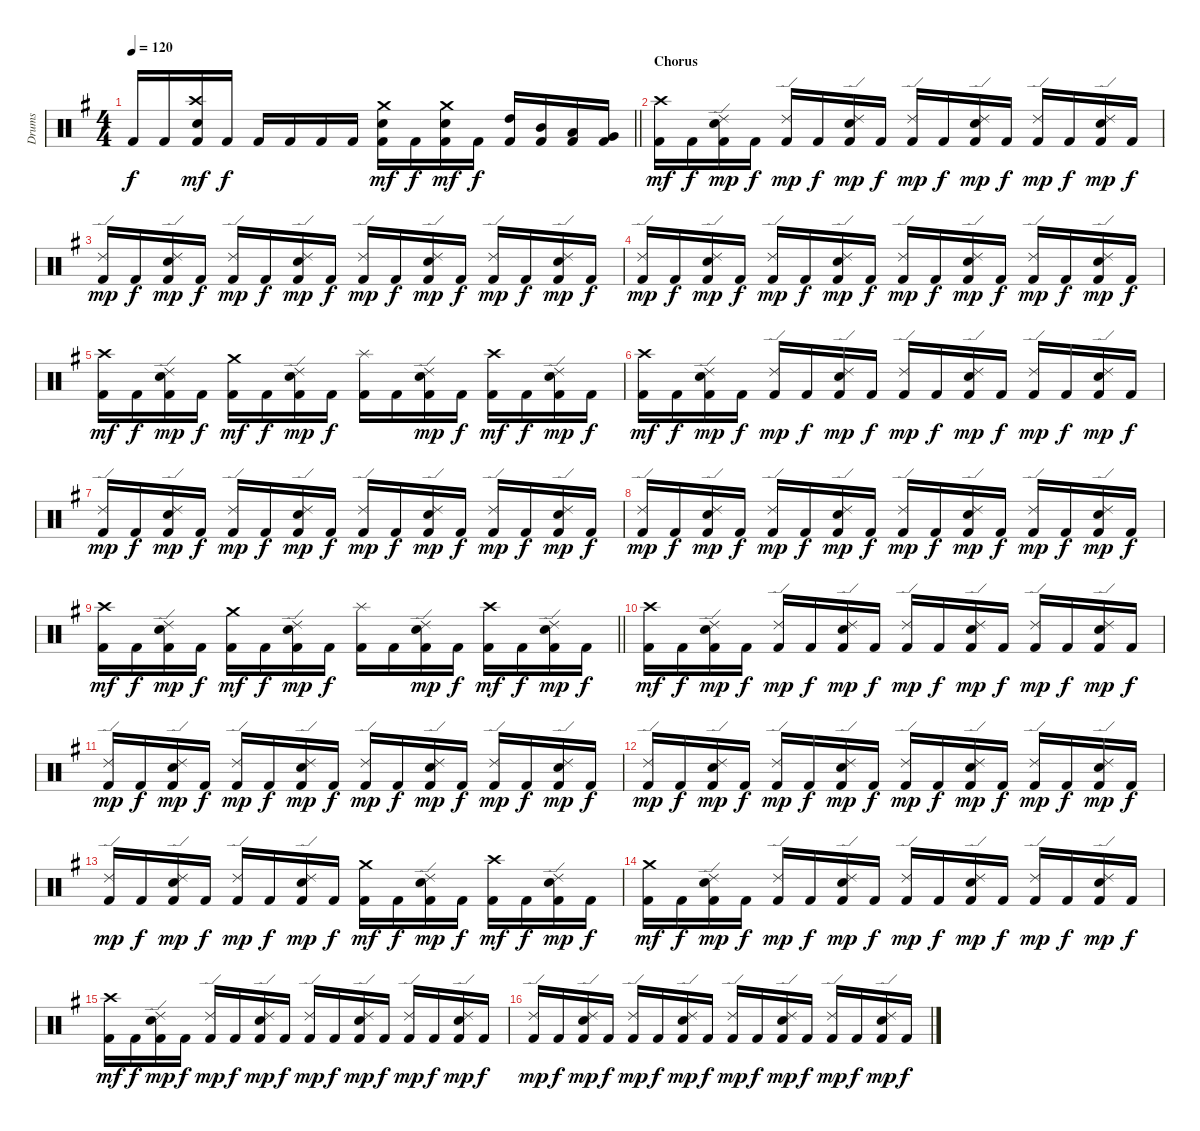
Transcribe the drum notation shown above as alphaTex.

\track ("Drums" "Drums") {instrument percussion}
\staff {score}
\articulation defaults
\ts (4 4)
\tempo 120
\clef neutral
\barLineRight lightlight
\ks eminor "Kick (hit) 2".16{dy f} "Kick (hit) 2".16
("Crash high (hit)" "Electric Snare (hit)" "Kick (hit) 2").16{dy mf} "Kick (hit) 2".16{dy f} "Kick (hit) 2".16 "Kick (hit) 2".16 "Kick (hit) 2".16 "Kick (hit) 2".16 ("Crash medium (hit)" "Electric Snare (hit)" "Kick (hit) 2").16{dy mf} "Kick (hit) 2".16{dy f} ("Crash medium (hit)" "Electric Snare (hit)" "Kick (hit) 2").16{dy mf} "Kick (hit) 2".16{dy f} ("High Tom (hit)" "Kick (hit) 2").16 ("Mid Tom (hit)" "Kick (hit) 2").16 ("Low Tom (hit)" "Kick (hit) 2").16 ("Very Low Tom (hit)" "Kick (hit) 2").16 |
\section ("" "Chorus")
("Crash high (hit)" "Kick (hit) 2").16{dy mf} "Kick (hit) 2".16{dy f} ("Ride (edge) 2" "Electric Snare (hit)" "Kick (hit) 2").16{dy mp} "Kick (hit) 2".16{dy f} ("Ride (edge) 2" "Kick (hit) 2").16{dy mp} "Kick (hit) 2".16{dy f} ("Ride (edge) 2" "Electric Snare (hit)" "Kick (hit) 2").16{dy mp} "Kick (hit) 2".16{dy f} ("Ride (edge) 2" "Kick (hit) 2").16{dy mp} "Kick (hit) 2".16{dy f} ("Ride (edge) 2" "Electric Snare (hit)" "Kick (hit) 2").16{dy mp} "Kick (hit) 2".16{dy f} ("Ride (edge) 2" "Kick (hit) 2").16{dy mp} "Kick (hit) 2".16{dy f} ("Ride (edge) 2" "Electric Snare (hit)" "Kick (hit) 2").16{dy mp} "Kick (hit) 2".16{dy f} |
("Ride (edge) 2" "Kick (hit) 2").16{dy mp} "Kick (hit) 2".16{dy f} ("Ride (edge) 2" "Electric Snare (hit)" "Kick (hit) 2").16{dy mp} "Kick (hit) 2".16{dy f} ("Ride (edge) 2" "Kick (hit) 2").16{dy mp} "Kick (hit) 2".16{dy f} ("Ride (edge) 2" "Electric Snare (hit)" "Kick (hit) 2").16{dy mp} "Kick (hit) 2".16{dy f} ("Ride (edge) 2" "Kick (hit) 2").16{dy mp} "Kick (hit) 2".16{dy f} ("Ride (edge) 2" "Electric Snare (hit)" "Kick (hit) 2").16{dy mp} "Kick (hit) 2".16{dy f} ("Ride (edge) 2" "Kick (hit) 2").16{dy mp} "Kick (hit) 2".16{dy f} ("Ride (edge) 2" "Electric Snare (hit)" "Kick (hit) 2").16{dy mp} "Kick (hit) 2".16{dy f} |
("Ride (edge) 2" "Kick (hit) 2").16{dy mp} "Kick (hit) 2".16{dy f} ("Ride (edge) 2" "Electric Snare (hit)" "Kick (hit) 2").16{dy mp} "Kick (hit) 2".16{dy f} ("Ride (edge) 2" "Kick (hit) 2").16{dy mp} "Kick (hit) 2".16{dy f} ("Ride (edge) 2" "Electric Snare (hit)" "Kick (hit) 2").16{dy mp} "Kick (hit) 2".16{dy f} ("Ride (edge) 2" "Kick (hit) 2").16{dy mp} "Kick (hit) 2".16{dy f} ("Ride (edge) 2" "Electric Snare (hit)" "Kick (hit) 2").16{dy mp} "Kick (hit) 2".16{dy f} ("Ride (edge) 2" "Kick (hit) 2").16{dy mp} "Kick (hit) 2".16{dy f} ("Ride (edge) 2" "Electric Snare (hit)" "Kick (hit) 2").16{dy mp} "Kick (hit) 2".16{dy f} |
("Crash high (hit)" "Kick (hit) 2").16{dy mf} "Kick (hit) 2".16{dy f} ("Ride (edge) 2" "Electric Snare (hit)" "Kick (hit) 2").16{dy mp} "Kick (hit) 2".16{dy f} ("Crash medium (hit)" "Kick (hit) 2").16{dy mf} "Kick (hit) 2".16{dy f} ("Ride (edge) 2" "Electric Snare (hit)" "Kick (hit) 2").16{dy mp} "Kick (hit) 2".16{dy f} ("Splash (hit)" "Kick (hit) 2").16 "Kick (hit) 2".16 ("Ride (edge) 2" "Electric Snare (hit)" "Kick (hit) 2").16{dy mp} "Kick (hit) 2".16{dy f} ("Crash high (hit)" "Kick (hit) 2").16{dy mf} "Kick (hit) 2".16{dy f} ("Ride (edge) 2" "Electric Snare (hit)" "Kick (hit) 2").16{dy mp} "Kick (hit) 2".16{dy f} |
("Crash high (hit)" "Kick (hit) 2").16{dy mf} "Kick (hit) 2".16{dy f} ("Ride (edge) 2" "Electric Snare (hit)" "Kick (hit) 2").16{dy mp} "Kick (hit) 2".16{dy f} ("Ride (edge) 2" "Kick (hit) 2").16{dy mp} "Kick (hit) 2".16{dy f} ("Ride (edge) 2" "Electric Snare (hit)" "Kick (hit) 2").16{dy mp} "Kick (hit) 2".16{dy f} ("Ride (edge) 2" "Kick (hit) 2").16{dy mp} "Kick (hit) 2".16{dy f} ("Ride (edge) 2" "Electric Snare (hit)" "Kick (hit) 2").16{dy mp} "Kick (hit) 2".16{dy f} ("Ride (edge) 2" "Kick (hit) 2").16{dy mp} "Kick (hit) 2".16{dy f} ("Ride (edge) 2" "Electric Snare (hit)" "Kick (hit) 2").16{dy mp} "Kick (hit) 2".16{dy f} |
("Ride (edge) 2" "Kick (hit) 2").16{dy mp} "Kick (hit) 2".16{dy f} ("Ride (edge) 2" "Electric Snare (hit)" "Kick (hit) 2").16{dy mp} "Kick (hit) 2".16{dy f} ("Ride (edge) 2" "Kick (hit) 2").16{dy mp} "Kick (hit) 2".16{dy f} ("Ride (edge) 2" "Electric Snare (hit)" "Kick (hit) 2").16{dy mp} "Kick (hit) 2".16{dy f} ("Ride (edge) 2" "Kick (hit) 2").16{dy mp} "Kick (hit) 2".16{dy f} ("Ride (edge) 2" "Electric Snare (hit)" "Kick (hit) 2").16{dy mp} "Kick (hit) 2".16{dy f} ("Ride (edge) 2" "Kick (hit) 2").16{dy mp} "Kick (hit) 2".16{dy f} ("Ride (edge) 2" "Electric Snare (hit)" "Kick (hit) 2").16{dy mp} "Kick (hit) 2".16{dy f} |
("Ride (edge) 2" "Kick (hit) 2").16{dy mp} "Kick (hit) 2".16{dy f} ("Ride (edge) 2" "Electric Snare (hit)" "Kick (hit) 2").16{dy mp} "Kick (hit) 2".16{dy f} ("Ride (edge) 2" "Kick (hit) 2").16{dy mp} "Kick (hit) 2".16{dy f} ("Ride (edge) 2" "Electric Snare (hit)" "Kick (hit) 2").16{dy mp} "Kick (hit) 2".16{dy f} ("Ride (edge) 2" "Kick (hit) 2").16{dy mp} "Kick (hit) 2".16{dy f} ("Ride (edge) 2" "Electric Snare (hit)" "Kick (hit) 2").16{dy mp} "Kick (hit) 2".16{dy f} ("Ride (edge) 2" "Kick (hit) 2").16{dy mp} "Kick (hit) 2".16{dy f} ("Ride (edge) 2" "Electric Snare (hit)" "Kick (hit) 2").16{dy mp} "Kick (hit) 2".16{dy f} |
\barLineRight lightlight
("Crash high (hit)" "Kick (hit) 2").16{dy mf} "Kick (hit) 2".16{dy f} ("Ride (edge) 2" "Electric Snare (hit)" "Kick (hit) 2").16{dy mp} "Kick (hit) 2".16{dy f} ("Crash medium (hit)" "Kick (hit) 2").16{dy mf} "Kick (hit) 2".16{dy f} ("Ride (edge) 2" "Electric Snare (hit)" "Kick (hit) 2").16{dy mp} "Kick (hit) 2".16{dy f} ("Splash (hit)" "Kick (hit) 2").16 "Kick (hit) 2".16 ("Ride (edge) 2" "Electric Snare (hit)" "Kick (hit) 2").16{dy mp} "Kick (hit) 2".16{dy f} ("Crash high (hit)" "Kick (hit) 2").16{dy mf} "Kick (hit) 2".16{dy f} ("Ride (edge) 2" "Electric Snare (hit)" "Kick (hit) 2").16{dy mp} "Kick (hit) 2".16{dy f} |
("Crash high (hit)" "Kick (hit) 2").16{dy mf} "Kick (hit) 2".16{dy f} ("Ride (edge) 2" "Electric Snare (hit)" "Kick (hit) 2").16{dy mp} "Kick (hit) 2".16{dy f} ("Ride (edge) 2" "Kick (hit) 2").16{dy mp} "Kick (hit) 2".16{dy f} ("Ride (edge) 2" "Electric Snare (hit)" "Kick (hit) 2").16{dy mp} "Kick (hit) 2".16{dy f} ("Ride (edge) 2" "Kick (hit) 2").16{dy mp} "Kick (hit) 2".16{dy f} ("Ride (edge) 2" "Electric Snare (hit)" "Kick (hit) 2").16{dy mp} "Kick (hit) 2".16{dy f} ("Ride (edge) 2" "Kick (hit) 2").16{dy mp} "Kick (hit) 2".16{dy f} ("Ride (edge) 2" "Electric Snare (hit)" "Kick (hit) 2").16{dy mp} "Kick (hit) 2".16{dy f} |
("Ride (edge) 2" "Kick (hit) 2").16{dy mp} "Kick (hit) 2".16{dy f} ("Ride (edge) 2" "Electric Snare (hit)" "Kick (hit) 2").16{dy mp} "Kick (hit) 2".16{dy f} ("Ride (edge) 2" "Kick (hit) 2").16{dy mp} "Kick (hit) 2".16{dy f} ("Ride (edge) 2" "Electric Snare (hit)" "Kick (hit) 2").16{dy mp} "Kick (hit) 2".16{dy f} ("Ride (edge) 2" "Kick (hit) 2").16{dy mp} "Kick (hit) 2".16{dy f} ("Ride (edge) 2" "Electric Snare (hit)" "Kick (hit) 2").16{dy mp} "Kick (hit) 2".16{dy f} ("Ride (edge) 2" "Kick (hit) 2").16{dy mp} "Kick (hit) 2".16{dy f} ("Ride (edge) 2" "Electric Snare (hit)" "Kick (hit) 2").16{dy mp} "Kick (hit) 2".16{dy f} |
("Ride (edge) 2" "Kick (hit) 2").16{dy mp} "Kick (hit) 2".16{dy f} ("Ride (edge) 2" "Electric Snare (hit)" "Kick (hit) 2").16{dy mp} "Kick (hit) 2".16{dy f} ("Ride (edge) 2" "Kick (hit) 2").16{dy mp} "Kick (hit) 2".16{dy f} ("Ride (edge) 2" "Electric Snare (hit)" "Kick (hit) 2").16{dy mp} "Kick (hit) 2".16{dy f} ("Ride (edge) 2" "Kick (hit) 2").16{dy mp} "Kick (hit) 2".16{dy f} ("Ride (edge) 2" "Electric Snare (hit)" "Kick (hit) 2").16{dy mp} "Kick (hit) 2".16{dy f} ("Ride (edge) 2" "Kick (hit) 2").16{dy mp} "Kick (hit) 2".16{dy f} ("Ride (edge) 2" "Electric Snare (hit)" "Kick (hit) 2").16{dy mp} "Kick (hit) 2".16{dy f} |
("Ride (edge) 2" "Kick (hit) 2").16{dy mp} "Kick (hit) 2".16{dy f} ("Ride (edge) 2" "Electric Snare (hit)" "Kick (hit) 2").16{dy mp} "Kick (hit) 2".16{dy f} ("Ride (edge) 2" "Kick (hit) 2").16{dy mp} "Kick (hit) 2".16{dy f} ("Ride (edge) 2" "Electric Snare (hit)" "Kick (hit) 2").16{dy mp} "Kick (hit) 2".16{dy f} ("Crash medium (hit)" "Kick (hit) 2").16{dy mf} "Kick (hit) 2".16{dy f} ("Ride (edge) 2" "Electric Snare (hit)" "Kick (hit) 2").16{dy mp} "Kick (hit) 2".16{dy f} ("Crash high (hit)" "Kick (hit) 2").16{dy mf} "Kick (hit) 2".16{dy f} ("Ride (edge) 2" "Electric Snare (hit)" "Kick (hit) 2").16{dy mp} "Kick (hit) 2".16{dy f} |
("Crash medium (hit)" "Kick (hit) 2").16{dy mf} "Kick (hit) 2".16{dy f} ("Ride (edge) 2" "Electric Snare (hit)" "Kick (hit) 2").16{dy mp} "Kick (hit) 2".16{dy f} ("Ride (edge) 2" "Kick (hit) 2").16{dy mp} "Kick (hit) 2".16{dy f} ("Ride (edge) 2" "Electric Snare (hit)" "Kick (hit) 2").16{dy mp} "Kick (hit) 2".16{dy f} ("Ride (edge) 2" "Kick (hit) 2").16{dy mp} "Kick (hit) 2".16{dy f} ("Ride (edge) 2" "Electric Snare (hit)" "Kick (hit) 2").16{dy mp} "Kick (hit) 2".16{dy f} ("Ride (edge) 2" "Kick (hit) 2").16{dy mp} "Kick (hit) 2".16{dy f} ("Ride (edge) 2" "Electric Snare (hit)" "Kick (hit) 2").16{dy mp} "Kick (hit) 2".16{dy f} |
("Crash high (hit)" "Kick (hit) 2").16{dy mf} "Kick (hit) 2".16{dy f} ("Ride (edge) 2" "Electric Snare (hit)" "Kick (hit) 2").16{dy mp} "Kick (hit) 2".16{dy f} ("Ride (edge) 2" "Kick (hit) 2").16{dy mp} "Kick (hit) 2".16{dy f} ("Ride (edge) 2" "Electric Snare (hit)" "Kick (hit) 2").16{dy mp} "Kick (hit) 2".16{dy f} ("Ride (edge) 2" "Kick (hit) 2").16{dy mp} "Kick (hit) 2".16{dy f} ("Ride (edge) 2" "Electric Snare (hit)" "Kick (hit) 2").16{dy mp} "Kick (hit) 2".16{dy f} ("Ride (edge) 2" "Kick (hit) 2").16{dy mp} "Kick (hit) 2".16{dy f} ("Ride (edge) 2" "Electric Snare (hit)" "Kick (hit) 2").16{dy mp} "Kick (hit) 2".16{dy f} |
("Ride (edge) 2" "Kick (hit) 2").16{dy mp} "Kick (hit) 2".16{dy f} ("Ride (edge) 2" "Electric Snare (hit)" "Kick (hit) 2").16{dy mp} "Kick (hit) 2".16{dy f} ("Ride (edge) 2" "Kick (hit) 2").16{dy mp} "Kick (hit) 2".16{dy f} ("Ride (edge) 2" "Electric Snare (hit)" "Kick (hit) 2").16{dy mp} "Kick (hit) 2".16{dy f} ("Ride (edge) 2" "Kick (hit) 2").16{dy mp} "Kick (hit) 2".16{dy f} ("Ride (edge) 2" "Electric Snare (hit)" "Kick (hit) 2").16{dy mp} "Kick (hit) 2".16{dy f} ("Ride (edge) 2" "Kick (hit) 2").16{dy mp} "Kick (hit) 2".16{dy f} ("Ride (edge) 2" "Electric Snare (hit)" "Kick (hit) 2").16{dy mp} "Kick (hit) 2".16{dy f}
